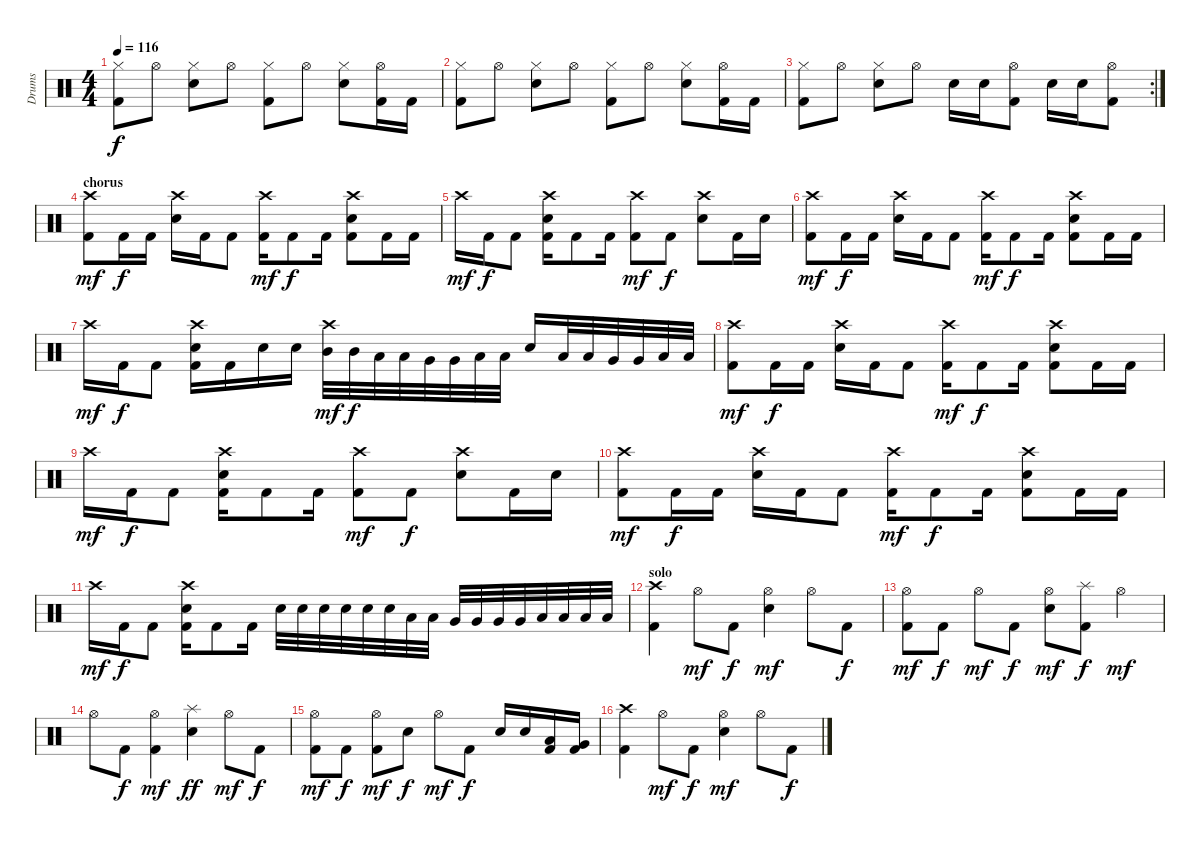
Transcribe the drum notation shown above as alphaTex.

\track ("Drums" "Drums") {instrument percussion}
\staff {score}
\articulation defaults
\ts (4 4)
\tempo 116
\clef neutral
\ks c
("Kick (hit) 2" "Hi-Hat (closed)").8{dy f} "Hi-Hat (open)".8 ("Hi-Hat (closed)" "Electric Snare (hit)").8 "Hi-Hat (open)".8 ("Kick (hit) 2" "Hi-Hat (closed)").8 "Hi-Hat (open)".8 ("Hi-Hat (closed)" "Electric Snare (hit)").8 ("Kick (hit) 2" "Hi-Hat (open)").16 "Kick (hit) 2".16 |
("Kick (hit) 2" "Hi-Hat (closed)").8 "Hi-Hat (open)".8 ("Hi-Hat (closed)" "Electric Snare (hit)").8 "Hi-Hat (open)".8 ("Kick (hit) 2" "Hi-Hat (closed)").8 "Hi-Hat (open)".8 ("Hi-Hat (closed)" "Electric Snare (hit)").8 ("Kick (hit) 2" "Hi-Hat (open)").16 "Kick (hit) 2".16 |
\rc 2
("Kick (hit) 2" "Hi-Hat (closed)").8 "Hi-Hat (open)".8 ("Hi-Hat (closed)" "Electric Snare (hit)").8 "Hi-Hat (open)".8 "Electric Snare (hit)".16 "Electric Snare (hit)".16 ("Kick (hit) 2" "Hi-Hat (open)").8 "Electric Snare (hit)".16 "Electric Snare (hit)".16 ("Kick (hit) 2" "Hi-Hat (open)").8 |
\section ("" "chorus")
("Kick (hit) 2" "Crash high (hit)").8{dy mf} "Kick (hit) 2".16{dy f} "Kick (hit) 2".16 ("Crash high (hit)" "Electric Snare (hit)").16 "Kick (hit) 2".16 "Kick (hit) 2".8 ("Kick (hit) 2" "Crash high (hit)").16{dy mf} "Kick (hit) 2".8{dy f} "Kick (hit) 2".16 ("Kick (hit) 2" "Crash high (hit)" "Electric Snare (hit)").8 "Kick (hit) 2".16 "Kick (hit) 2".16 |
"Crash high (hit)".16{dy mf} "Kick (hit) 2".16{dy f} "Kick (hit) 2".8 ("Kick (hit) 2" "Crash high (hit)" "Electric Snare (hit)").16 "Kick (hit) 2".8 "Kick (hit) 2".16 ("Kick (hit) 2" "Crash high (hit)").8{dy mf} "Kick (hit) 2".8{dy f} ("Crash high (hit)" "Electric Snare (hit)").8 "Kick (hit) 2".16 "Electric Snare (hit)".16 |
("Kick (hit) 2" "Crash high (hit)").8{dy mf} "Kick (hit) 2".16{dy f} "Kick (hit) 2".16 ("Crash high (hit)" "Electric Snare (hit)").16 "Kick (hit) 2".16 "Kick (hit) 2".8 ("Kick (hit) 2" "Crash high (hit)").16{dy mf} "Kick (hit) 2".8{dy f} "Kick (hit) 2".16 ("Kick (hit) 2" "Crash high (hit)" "Electric Snare (hit)").8 "Kick (hit) 2".16 "Kick (hit) 2".16 |
"Crash high (hit)".16{dy mf} "Kick (hit) 2".16{dy f} "Kick (hit) 2".8 ("Kick (hit) 2" "Crash high (hit)" "Electric Snare (hit)").16 "Kick (hit) 2".16 "Electric Snare (hit)".16 "Electric Snare (hit)".16 ("Crash high (hit)" "Mid Tom (hit)").32{dy mf} "Mid Tom (hit)".32{dy f} "Low Tom (hit)".32 "Low Tom (hit)".32 "Very Low Tom (hit)".32 "Very Low Tom (hit)".32 "Low Floor Tom (hit)".32 "Low Floor Tom (hit)".32 "Electric Snare (hit)".16 "Low Tom (hit)".32 "Low Tom (hit)".32 "Very Low Tom (hit)".32 "Very Low Tom (hit)".32 "Low Floor Tom (hit)".32 "Low Floor Tom (hit)".32 |
("Kick (hit) 2" "Crash high (hit)").8{dy mf} "Kick (hit) 2".16{dy f} "Kick (hit) 2".16 ("Crash high (hit)" "Electric Snare (hit)").16 "Kick (hit) 2".16 "Kick (hit) 2".8 ("Kick (hit) 2" "Crash high (hit)").16{dy mf} "Kick (hit) 2".8{dy f} "Kick (hit) 2".16 ("Kick (hit) 2" "Crash high (hit)" "Electric Snare (hit)").8 "Kick (hit) 2".16 "Kick (hit) 2".16 |
"Crash high (hit)".16{dy mf} "Kick (hit) 2".16{dy f} "Kick (hit) 2".8 ("Kick (hit) 2" "Crash high (hit)" "Electric Snare (hit)").16 "Kick (hit) 2".8 "Kick (hit) 2".16 ("Kick (hit) 2" "Crash high (hit)").8{dy mf} "Kick (hit) 2".8{dy f} ("Crash high (hit)" "Electric Snare (hit)").8 "Kick (hit) 2".16 "Electric Snare (hit)".16 |
("Kick (hit) 2" "Crash high (hit)").8{dy mf} "Kick (hit) 2".16{dy f} "Kick (hit) 2".16 ("Crash high (hit)" "Electric Snare (hit)").16 "Kick (hit) 2".16 "Kick (hit) 2".8 ("Kick (hit) 2" "Crash high (hit)").16{dy mf} "Kick (hit) 2".8{dy f} "Kick (hit) 2".16 ("Kick (hit) 2" "Crash high (hit)" "Electric Snare (hit)").8 "Kick (hit) 2".16 "Kick (hit) 2".16 |
"Crash high (hit)".16{dy mf} "Kick (hit) 2".16{dy f} "Kick (hit) 2".8 ("Kick (hit) 2" "Crash high (hit)" "Electric Snare (hit)").16 "Kick (hit) 2".8 "Kick (hit) 2".16 "Electric Snare (hit)".32 "Electric Snare (hit)".32 "Electric Snare (hit)".32 "Electric Snare (hit)".32 "Electric Snare (hit)".32 "Electric Snare (hit)".32 "Low Tom (hit)".32 "Low Tom (hit)".32 "Very Low Tom (hit)".32 "Very Low Tom (hit)".32 "Very Low Tom (hit)".32 "Very Low Tom (hit)".32 "Low Floor Tom (hit)".32 "Low Floor Tom (hit)".32 "Low Floor Tom (hit)".32 "Low Floor Tom (hit)".32 |
\section ("" "solo")
("Kick (hit) 2" "Crash high (hit)").4 "Hi-Hat (open)".8{dy mf} "Kick (hit) 2".8{dy f} ("Hi-Hat (open)" "Electric Snare (hit)").4{dy mf} "Hi-Hat (open)".8 "Kick (hit) 2".8{dy f} |
("Kick (hit) 2" "Hi-Hat (open)").8{dy mf} "Kick (hit) 2".8{dy f} "Hi-Hat (open)".8{dy mf} "Kick (hit) 2".8{dy f} ("Hi-Hat (open)" "Electric Snare (hit)").8{dy mf} ("Kick (hit) 2" "Splash (hit)").8{dy f} "Hi-Hat (open)".4{dy mf} |
"Hi-Hat (open)".8 "Kick (hit) 2".8{dy f} ("Kick (hit) 2" "Hi-Hat (open)").4{dy mf} ("Splash (hit)" "Electric Snare (hit)").4{dy ff} "Hi-Hat (open)".8{dy mf} "Kick (hit) 2".8{dy f} |
("Kick (hit) 2" "Hi-Hat (open)").8{dy mf} "Kick (hit) 2".8{dy f} ("Kick (hit) 2" "Hi-Hat (open)").8{dy mf} "Electric Snare (hit)".8{dy f} "Hi-Hat (open)".8{dy mf} "Kick (hit) 2".8{dy f} "Electric Snare (hit)".16 "Electric Snare (hit)".16 ("Kick (hit) 2" "Low Tom (hit)").16 ("Kick (hit) 2" "Very Low Tom (hit)").16 |
("Kick (hit) 2" "Crash high (hit)").4 "Hi-Hat (open)".8{dy mf} "Kick (hit) 2".8{dy f} ("Hi-Hat (open)" "Electric Snare (hit)").4{dy mf} "Hi-Hat (open)".8 "Kick (hit) 2".8{dy f}
